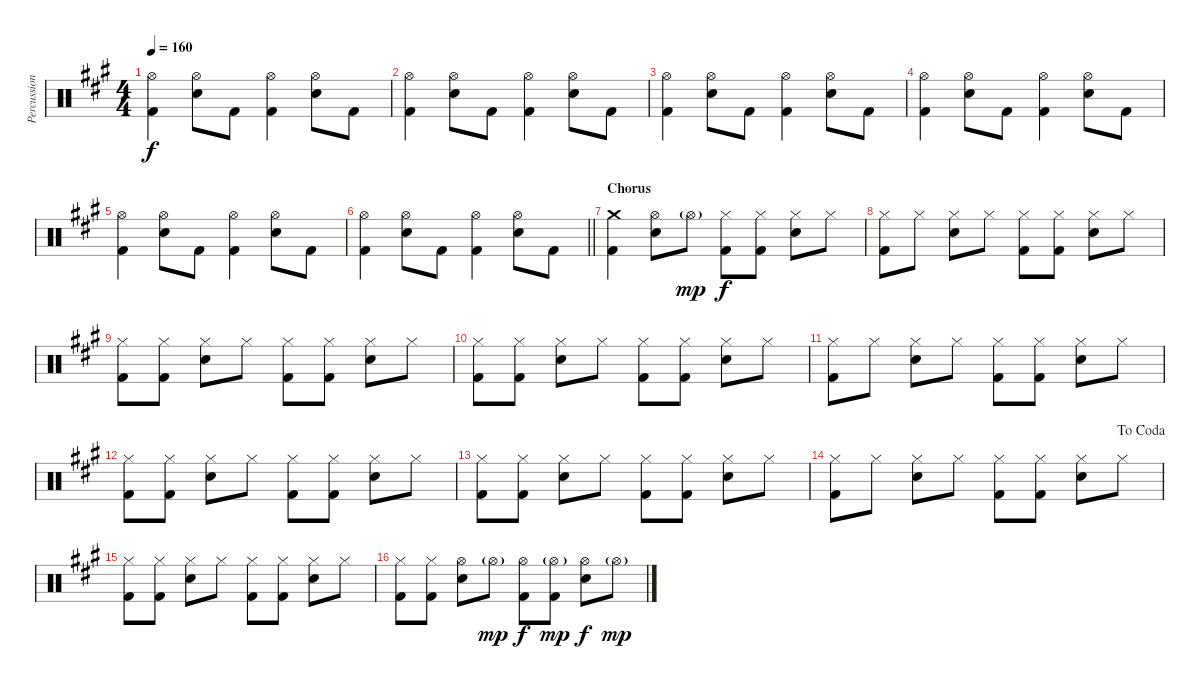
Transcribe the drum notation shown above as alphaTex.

\track ("Percussion" "Percussion") {instrument percussion}
\staff {score}
\articulation defaults
\ts (4 4)
\tempo 160
\clef neutral
\ks a
("Hi-Hat (open)" "Kick (hit) 2").4{dy f} ("Hi-Hat (open)" "Electric Snare (hit)").8 "Kick (hit) 2".8 ("Hi-Hat (open)" "Kick (hit) 2").4 ("Hi-Hat (open)" "Electric Snare (hit)").8 "Kick (hit) 2".8 |
("Hi-Hat (open)" "Kick (hit) 2").4 ("Hi-Hat (open)" "Electric Snare (hit)").8 "Kick (hit) 2".8 ("Hi-Hat (open)" "Kick (hit) 2").4 ("Hi-Hat (open)" "Electric Snare (hit)").8 "Kick (hit) 2".8 |
("Hi-Hat (open)" "Kick (hit) 2").4 ("Hi-Hat (open)" "Electric Snare (hit)").8 "Kick (hit) 2".8 ("Hi-Hat (open)" "Kick (hit) 2").4 ("Hi-Hat (open)" "Electric Snare (hit)").8 "Kick (hit) 2".8 |
("Hi-Hat (open)" "Kick (hit) 2").4 ("Hi-Hat (open)" "Electric Snare (hit)").8 "Kick (hit) 2".8 ("Hi-Hat (open)" "Kick (hit) 2").4 ("Hi-Hat (open)" "Electric Snare (hit)").8 "Kick (hit) 2".8 |
("Hi-Hat (open)" "Kick (hit) 2").4 ("Hi-Hat (open)" "Electric Snare (hit)").8 "Kick (hit) 2".8 ("Hi-Hat (open)" "Kick (hit) 2").4 ("Hi-Hat (open)" "Electric Snare (hit)").8 "Kick (hit) 2".8 |
\barLineRight lightlight
("Hi-Hat (open)" "Kick (hit) 2").4 ("Hi-Hat (open)" "Electric Snare (hit)").8 "Kick (hit) 2".8 ("Hi-Hat (open)" "Kick (hit) 2").4 ("Hi-Hat (open)" "Electric Snare (hit)").8 "Kick (hit) 2".8 |
\section ("" "Chorus")
("Crash medium (hit)" "Kick (hit) 2").4 ("Hi-Hat (open)" "Electric Snare (hit)").8 "Hi-Hat (open)"{g}.8{dy mp} ("Hi-Hat (closed)" "Kick (hit) 2").8{dy f} ("Hi-Hat (closed)" "Kick (hit) 2").8 ("Hi-Hat (closed)" "Electric Snare (hit)").8 "Hi-Hat (closed)".8 |
("Hi-Hat (closed)" "Kick (hit) 2").8 "Hi-Hat (closed)".8 ("Hi-Hat (closed)" "Electric Snare (hit)").8 "Hi-Hat (closed)".8 ("Hi-Hat (closed)" "Kick (hit) 2").8 ("Hi-Hat (closed)" "Kick (hit) 2").8 ("Hi-Hat (closed)" "Electric Snare (hit)").8 "Hi-Hat (closed)".8 |
("Hi-Hat (closed)" "Kick (hit) 2").8 ("Hi-Hat (closed)" "Kick (hit) 2").8 ("Hi-Hat (closed)" "Electric Snare (hit)").8 "Hi-Hat (closed)".8 ("Hi-Hat (closed)" "Kick (hit) 2").8 ("Hi-Hat (closed)" "Kick (hit) 2").8 ("Hi-Hat (closed)" "Electric Snare (hit)").8 "Hi-Hat (closed)".8 |
("Hi-Hat (closed)" "Kick (hit) 2").8 ("Hi-Hat (closed)" "Kick (hit) 2").8 ("Hi-Hat (closed)" "Electric Snare (hit)").8 "Hi-Hat (closed)".8 ("Hi-Hat (closed)" "Kick (hit) 2").8 ("Hi-Hat (closed)" "Kick (hit) 2").8 ("Hi-Hat (closed)" "Electric Snare (hit)").8 "Hi-Hat (closed)".8 |
("Hi-Hat (closed)" "Kick (hit) 2").8 "Hi-Hat (closed)".8 ("Hi-Hat (closed)" "Electric Snare (hit)").8 "Hi-Hat (closed)".8 ("Hi-Hat (closed)" "Kick (hit) 2").8 ("Hi-Hat (closed)" "Kick (hit) 2").8 ("Hi-Hat (closed)" "Electric Snare (hit)").8 "Hi-Hat (closed)".8 |
("Hi-Hat (closed)" "Kick (hit) 2").8 ("Hi-Hat (closed)" "Kick (hit) 2").8 ("Hi-Hat (closed)" "Electric Snare (hit)").8 "Hi-Hat (closed)".8 ("Hi-Hat (closed)" "Kick (hit) 2").8 ("Hi-Hat (closed)" "Kick (hit) 2").8 ("Hi-Hat (closed)" "Electric Snare (hit)").8 "Hi-Hat (closed)".8 |
("Hi-Hat (closed)" "Kick (hit) 2").8 ("Hi-Hat (closed)" "Kick (hit) 2").8 ("Hi-Hat (closed)" "Electric Snare (hit)").8 "Hi-Hat (closed)".8 ("Hi-Hat (closed)" "Kick (hit) 2").8 ("Hi-Hat (closed)" "Kick (hit) 2").8 ("Hi-Hat (closed)" "Electric Snare (hit)").8 "Hi-Hat (closed)".8 |
\jump dacoda
("Hi-Hat (closed)" "Kick (hit) 2").8 "Hi-Hat (closed)".8 ("Hi-Hat (closed)" "Electric Snare (hit)").8 "Hi-Hat (closed)".8 ("Hi-Hat (closed)" "Kick (hit) 2").8 ("Hi-Hat (closed)" "Kick (hit) 2").8 ("Hi-Hat (closed)" "Electric Snare (hit)").8 "Hi-Hat (closed)".8 |
("Hi-Hat (closed)" "Kick (hit) 2").8 ("Hi-Hat (closed)" "Kick (hit) 2").8 ("Hi-Hat (closed)" "Electric Snare (hit)").8 "Hi-Hat (closed)".8 ("Hi-Hat (closed)" "Kick (hit) 2").8 ("Hi-Hat (closed)" "Kick (hit) 2").8 ("Hi-Hat (closed)" "Electric Snare (hit)").8 "Hi-Hat (closed)".8 |
("Hi-Hat (closed)" "Kick (hit) 2").8 ("Hi-Hat (closed)" "Kick (hit) 2").8 ("Hi-Hat (open)" "Electric Snare (hit)").8 "Hi-Hat (open)"{g}.8{dy mp} ("Hi-Hat (open)" "Kick (hit) 2").8{dy f} ("Hi-Hat (open)"{g} "Kick (hit) 2").8{dy mp} ("Hi-Hat (open)" "Electric Snare (hit)").8{dy f} "Hi-Hat (open)"{g}.8{dy mp}
